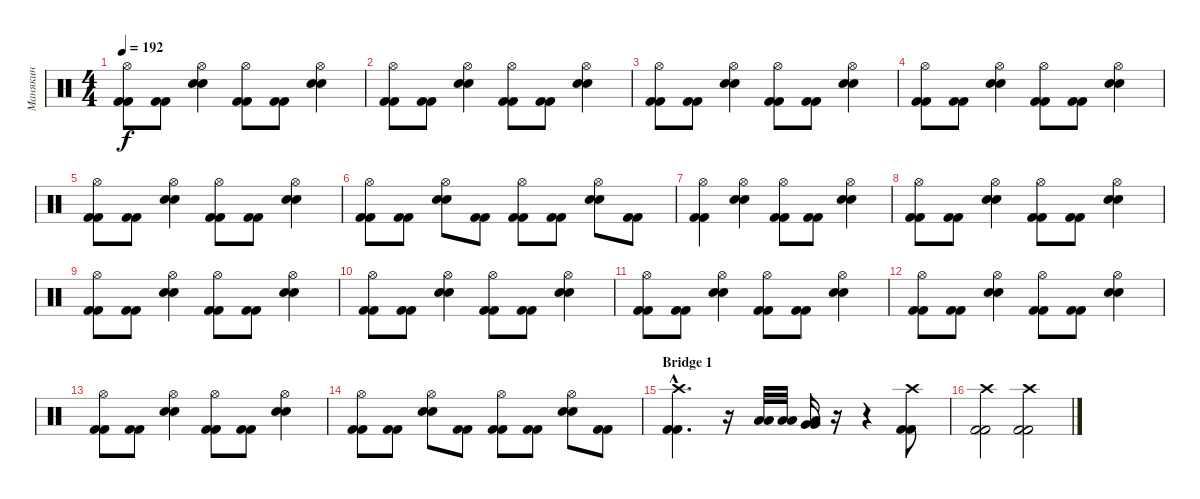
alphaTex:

\track ("Манякин" "Манякин") {instrument percussion}
\staff {score}
\articulation defaults
\ts (4 4)
\tempo 192
\clef neutral
\ks c
("Hi-Hat (open)" "Kick (hit) 2" "Kick (hit) 2").8{dy f} ("Kick (hit) 2" "Kick (hit) 2").8 ("Hi-Hat (open)" "Electric Snare (hit)" "Electric Snare (hit)").4 ("Hi-Hat (open)" "Kick (hit) 2" "Kick (hit) 2").8 ("Kick (hit) 2" "Kick (hit) 2").8 ("Hi-Hat (open)" "Electric Snare (hit)" "Electric Snare (hit)").4 |
("Hi-Hat (open)" "Kick (hit) 2" "Kick (hit) 2").8 ("Kick (hit) 2" "Kick (hit) 2").8 ("Hi-Hat (open)" "Electric Snare (hit)" "Electric Snare (hit)").4 ("Hi-Hat (open)" "Kick (hit) 2" "Kick (hit) 2").8 ("Kick (hit) 2" "Kick (hit) 2").8 ("Hi-Hat (open)" "Electric Snare (hit)" "Electric Snare (hit)").4 |
("Hi-Hat (open)" "Kick (hit) 2" "Kick (hit) 2").8 ("Kick (hit) 2" "Kick (hit) 2").8 ("Hi-Hat (open)" "Electric Snare (hit)" "Electric Snare (hit)").4 ("Hi-Hat (open)" "Kick (hit) 2" "Kick (hit) 2").8 ("Kick (hit) 2" "Kick (hit) 2").8 ("Hi-Hat (open)" "Electric Snare (hit)" "Electric Snare (hit)").4 |
("Hi-Hat (open)" "Kick (hit) 2" "Kick (hit) 2").8 ("Kick (hit) 2" "Kick (hit) 2").8 ("Hi-Hat (open)" "Electric Snare (hit)" "Electric Snare (hit)").4 ("Hi-Hat (open)" "Kick (hit) 2" "Kick (hit) 2").8 ("Kick (hit) 2" "Kick (hit) 2").8 ("Hi-Hat (open)" "Electric Snare (hit)" "Electric Snare (hit)").4 |
("Hi-Hat (open)" "Kick (hit) 2" "Kick (hit) 2").8 ("Kick (hit) 2" "Kick (hit) 2").8 ("Hi-Hat (open)" "Electric Snare (hit)" "Electric Snare (hit)").4 ("Hi-Hat (open)" "Kick (hit) 2" "Kick (hit) 2").8 ("Kick (hit) 2" "Kick (hit) 2").8 ("Hi-Hat (open)" "Electric Snare (hit)" "Electric Snare (hit)").4 |
("Hi-Hat (open)" "Kick (hit) 2" "Kick (hit) 2").8 ("Kick (hit) 2" "Kick (hit) 2").8 ("Hi-Hat (open)" "Electric Snare (hit)" "Electric Snare (hit)").8 ("Kick (hit) 2" "Kick (hit) 2").8 ("Hi-Hat (open)" "Kick (hit) 2" "Kick (hit) 2").8 ("Kick (hit) 2" "Kick (hit) 2").8 ("Hi-Hat (open)" "Electric Snare (hit)" "Electric Snare (hit)").8 ("Kick (hit) 2" "Kick (hit) 2").8 |
("Hi-Hat (open)" "Kick (hit) 2" "Kick (hit) 2").4 ("Hi-Hat (open)" "Electric Snare (hit)" "Electric Snare (hit)").4 ("Hi-Hat (open)" "Kick (hit) 2" "Kick (hit) 2").8 ("Kick (hit) 2" "Kick (hit) 2").8 ("Hi-Hat (open)" "Electric Snare (hit)" "Electric Snare (hit)").4 |
("Hi-Hat (open)" "Kick (hit) 2" "Kick (hit) 2").8 ("Kick (hit) 2" "Kick (hit) 2").8 ("Hi-Hat (open)" "Electric Snare (hit)" "Electric Snare (hit)").4 ("Hi-Hat (open)" "Kick (hit) 2" "Kick (hit) 2").8 ("Kick (hit) 2" "Kick (hit) 2").8 ("Hi-Hat (open)" "Electric Snare (hit)" "Electric Snare (hit)").4 |
("Hi-Hat (open)" "Kick (hit) 2" "Kick (hit) 2").8 ("Kick (hit) 2" "Kick (hit) 2").8 ("Hi-Hat (open)" "Electric Snare (hit)" "Electric Snare (hit)").4 ("Hi-Hat (open)" "Kick (hit) 2" "Kick (hit) 2").8 ("Kick (hit) 2" "Kick (hit) 2").8 ("Hi-Hat (open)" "Electric Snare (hit)" "Electric Snare (hit)").4 |
("Hi-Hat (open)" "Kick (hit) 2" "Kick (hit) 2").8 ("Kick (hit) 2" "Kick (hit) 2").8 ("Hi-Hat (open)" "Electric Snare (hit)" "Electric Snare (hit)").4 ("Hi-Hat (open)" "Kick (hit) 2" "Kick (hit) 2").8 ("Kick (hit) 2" "Kick (hit) 2").8 ("Hi-Hat (open)" "Electric Snare (hit)" "Electric Snare (hit)").4 |
("Hi-Hat (open)" "Kick (hit) 2" "Kick (hit) 2").8 ("Kick (hit) 2" "Kick (hit) 2").8 ("Hi-Hat (open)" "Electric Snare (hit)" "Electric Snare (hit)").4 ("Hi-Hat (open)" "Kick (hit) 2" "Kick (hit) 2").8 ("Kick (hit) 2" "Kick (hit) 2").8 ("Hi-Hat (open)" "Electric Snare (hit)" "Electric Snare (hit)").4 |
("Hi-Hat (open)" "Kick (hit) 2" "Kick (hit) 2").8 ("Kick (hit) 2" "Kick (hit) 2").8 ("Hi-Hat (open)" "Electric Snare (hit)" "Electric Snare (hit)").4 ("Hi-Hat (open)" "Kick (hit) 2" "Kick (hit) 2").8 ("Kick (hit) 2" "Kick (hit) 2").8 ("Hi-Hat (open)" "Electric Snare (hit)" "Electric Snare (hit)").4 |
("Hi-Hat (open)" "Kick (hit) 2" "Kick (hit) 2").8 ("Kick (hit) 2" "Kick (hit) 2").8 ("Hi-Hat (open)" "Electric Snare (hit)" "Electric Snare (hit)").4 ("Hi-Hat (open)" "Kick (hit) 2" "Kick (hit) 2").8 ("Kick (hit) 2" "Kick (hit) 2").8 ("Hi-Hat (open)" "Electric Snare (hit)" "Electric Snare (hit)").4 |
("Hi-Hat (open)" "Kick (hit) 2" "Kick (hit) 2").8 ("Kick (hit) 2" "Kick (hit) 2").8 ("Hi-Hat (open)" "Electric Snare (hit)" "Electric Snare (hit)").8 ("Kick (hit) 2" "Kick (hit) 2").8 ("Hi-Hat (open)" "Kick (hit) 2" "Kick (hit) 2").8 ("Kick (hit) 2" "Kick (hit) 2").8 ("Hi-Hat (open)" "Electric Snare (hit)" "Electric Snare (hit)").8 ("Kick (hit) 2" "Kick (hit) 2").8 |
\section ("" "Bridge 1")
("Crash high (hit)"{hac} "Kick (hit) 2"{hac} "Kick (hit) 2"{hac}).4{d} r.16 ("Low Tom (hit)" "Low Tom (hit)").32 ("Low Tom (hit)" "Low Tom (hit)").32 ("Low Tom (hit)" "Very Low Tom (hit)" "Very Low Tom (hit)").16 r.16 r.4 ("Crash high (hit)" "Kick (hit) 2" "Kick (hit) 2").8 |
("Crash high (hit)" "Kick (hit) 2" "Kick (hit) 2").2 ("Crash high (hit)" "Kick (hit) 2" "Kick (hit) 2").2
